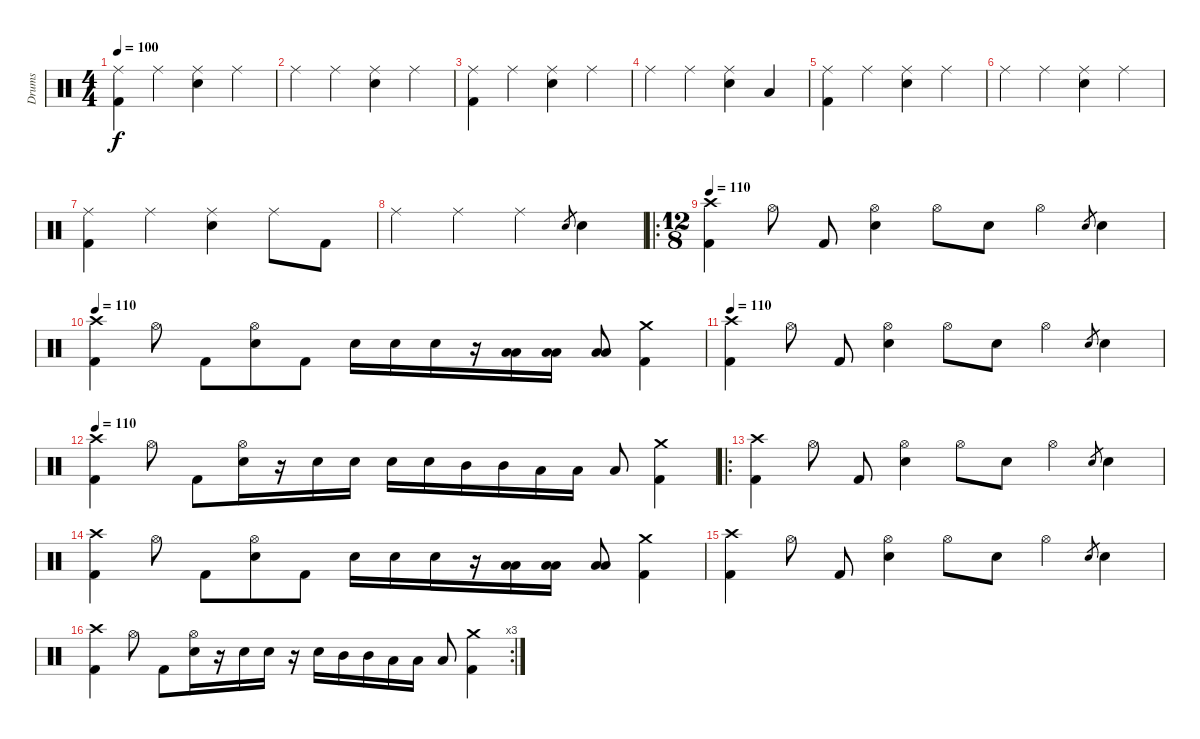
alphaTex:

\track ("Drums" "Drums") {instrument percussion}
\staff {score}
\articulation defaults
\ts (4 4)
\tempo 100
\clef neutral
\ks c
("Ride (middle)" "Kick (hit) 2").4{dy f volume 7} "Ride (middle)".4 ("Ride (middle)" "Snare (hit) 2").4 "Ride (middle)".4 |
"Ride (middle)".4 "Ride (middle)".4 ("Ride (middle)" "Snare (hit) 2").4 "Ride (middle)".4 |
("Ride (middle)" "Kick (hit) 2").4 "Ride (middle)".4 ("Ride (middle)" "Snare (hit) 2").4 "Ride (middle)".4 |
"Ride (middle)".4 "Ride (middle)".4 ("Ride (middle)" "Snare (hit) 2").4 "Low Tom (hit)".4 |
("Ride (middle)" "Kick (hit) 2").4{volume 7} "Ride (middle)".4 ("Ride (middle)" "Snare (hit) 2").4 "Ride (middle)".4 |
"Ride (middle)".4 "Ride (middle)".4 ("Ride (middle)" "Snare (hit) 2").4 "Ride (middle)".4 |
("Ride (middle)" "Kick (hit) 2").4 "Ride (middle)".4 ("Ride (middle)" "Snare (hit) 2").4 "Ride (middle)".8 "Kick (hit) 2".8 |
"Ride (middle)".4 "Ride (middle)".4 "Ride (middle)".4 "Snare (hit) 2".8{gr} "Snare (hit) 2".4 |
\ro
\ts (12 8)
\tempo 110
("Crash high (hit)" "Kick (hit) 2").4{volume 13} "Hi-Hat (open)".8 "Kick (hit) 2".8 ("Hi-Hat (open)" "Electric Snare (hit)").4 "Hi-Hat (open)".8 "Electric Snare (hit)".8 "Hi-Hat (open)".4 "Electric Snare (hit)".8{gr} "Electric Snare (hit)".4 |
\tempo 110
("Crash high (hit)" "Kick (hit) 2").4{volume 13} "Hi-Hat (open)".8 "Kick (hit) 2".8 ("Hi-Hat (open)" "Electric Snare (hit)").8 "Kick (hit) 2".8 "Electric Snare (hit)".16 "Electric Snare (hit)".16 "Electric Snare (hit)".16 r.16 ("Low Tom (hit)" "Low Tom (hit)").16 ("Low Tom (hit)" "Low Tom (hit)").16 ("Low Tom (hit)" "Low Tom (hit)").8 ("Crash medium (hit)" "Kick (hit) 2").4 |
\tempo 110
("Crash high (hit)" "Kick (hit) 2").4{volume 13} "Hi-Hat (open)".8 "Kick (hit) 2".8 ("Hi-Hat (open)" "Electric Snare (hit)").4 "Hi-Hat (open)".8 "Electric Snare (hit)".8 "Hi-Hat (open)".4 "Electric Snare (hit)".8{gr} "Electric Snare (hit)".4 |
\tempo 110
("Crash high (hit)" "Kick (hit) 2").4{volume 13} "Hi-Hat (open)".8 "Kick (hit) 2".8 ("Hi-Hat (open)" "Electric Snare (hit)").16 r.16 "Electric Snare (hit)".16 "Electric Snare (hit)".16 "Electric Snare (hit)".16 "Electric Snare (hit)".16 "Mid Tom (hit)".16 "Mid Tom (hit)".16 "Low Tom (hit)".16 "Low Tom (hit)".16 "Low Floor Tom (hit)".8 ("Crash medium (hit)" "Kick (hit) 2").4 |
\ro
("Crash high (hit)" "Kick (hit) 2").4 "Hi-Hat (open)".8 "Kick (hit) 2".8 ("Hi-Hat (open)" "Electric Snare (hit)").4 "Hi-Hat (open)".8 "Electric Snare (hit)".8 "Hi-Hat (open)".4 "Electric Snare (hit)".8{gr} "Electric Snare (hit)".4 |
("Crash high (hit)" "Kick (hit) 2").4 "Hi-Hat (open)".8 "Kick (hit) 2".8 ("Hi-Hat (open)" "Electric Snare (hit)").8 "Kick (hit) 2".8 "Electric Snare (hit)".16 "Electric Snare (hit)".16 "Electric Snare (hit)".16 r.16 ("Low Tom (hit)" "Low Tom (hit)").16 ("Low Tom (hit)" "Low Tom (hit)").16 ("Low Tom (hit)" "Low Tom (hit)").8 ("Crash medium (hit)" "Kick (hit) 2").4 |
("Crash high (hit)" "Kick (hit) 2").4 "Hi-Hat (open)".8 "Kick (hit) 2".8 ("Hi-Hat (open)" "Electric Snare (hit)").4 "Hi-Hat (open)".8 "Electric Snare (hit)".8 "Hi-Hat (open)".4 "Electric Snare (hit)".8{gr} "Electric Snare (hit)".4 |
\rc 3
("Crash high (hit)" "Kick (hit) 2").4 "Hi-Hat (open)".8 "Kick (hit) 2".8 ("Hi-Hat (open)" "Electric Snare (hit)").16 r.16 "Electric Snare (hit)".16 "Electric Snare (hit)".16 r.16 "Electric Snare (hit)".16 "Mid Tom (hit)".16 "Mid Tom (hit)".16 "Low Tom (hit)".16 "Low Tom (hit)".16 "Low Floor Tom (hit)".8 ("Crash medium (hit)" "Kick (hit) 2").4
